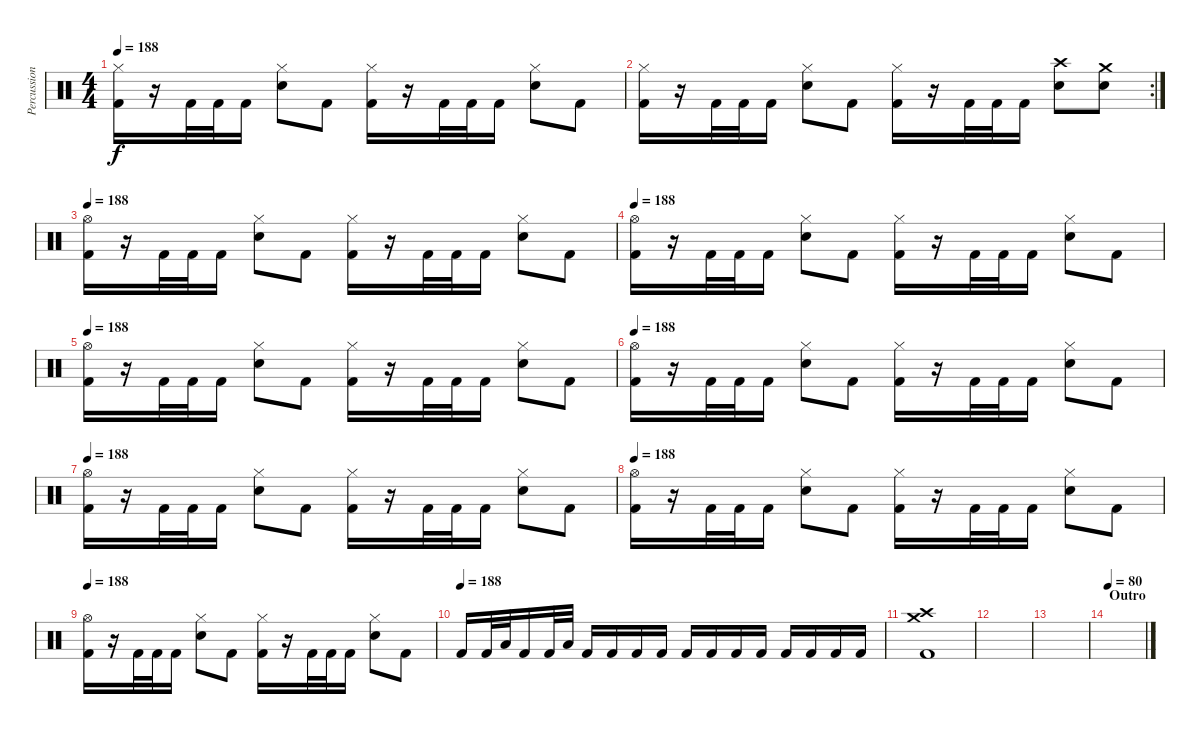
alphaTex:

\track ("Percussion" "Percussion") {instrument percussion}
\staff {score}
\articulation defaults
\ts (4 4)
\tempo 188
\clef neutral
\ks c
("Hi-Hat (closed)" "Kick (hit) 2").16{dy f} r.16 "Kick (hit) 2".32 "Kick (hit) 2".32 "Kick (hit) 2".16 ("Hi-Hat (closed)" "Electric Snare (hit)").8 "Kick (hit) 2".8 ("Hi-Hat (closed)" "Kick (hit) 2").16 r.16 "Kick (hit) 2".32 "Kick (hit) 2".32 "Kick (hit) 2".16 ("Hi-Hat (closed)" "Electric Snare (hit)").8 "Kick (hit) 2".8 |
\rc 2
("Hi-Hat (closed)" "Kick (hit) 2").16 r.16 "Kick (hit) 2".32 "Kick (hit) 2".32 "Kick (hit) 2".16 ("Hi-Hat (closed)" "Electric Snare (hit)").8 "Kick (hit) 2".8 ("Hi-Hat (closed)" "Kick (hit) 2").16 r.16 "Kick (hit) 2".32 "Kick (hit) 2".32 "Kick (hit) 2".16 ("Crash high (hit)" "Electric Snare (hit)").8 ("Crash medium (hit)" "Electric Snare (hit)").8 |
\tempo 188
("Hi-Hat (open)" "Kick (hit) 2").16 r.16 "Kick (hit) 2".32 "Kick (hit) 2".32 "Kick (hit) 2".16 ("Hi-Hat (closed)" "Electric Snare (hit)").8 "Kick (hit) 2".8 ("Hi-Hat (closed)" "Kick (hit) 2").16 r.16 "Kick (hit) 2".32 "Kick (hit) 2".32 "Kick (hit) 2".16 ("Hi-Hat (closed)" "Electric Snare (hit)").8 "Kick (hit) 2".8 |
\tempo 188
("Hi-Hat (open)" "Kick (hit) 2").16 r.16 "Kick (hit) 2".32 "Kick (hit) 2".32 "Kick (hit) 2".16 ("Hi-Hat (closed)" "Electric Snare (hit)").8 "Kick (hit) 2".8 ("Hi-Hat (closed)" "Kick (hit) 2").16 r.16 "Kick (hit) 2".32 "Kick (hit) 2".32 "Kick (hit) 2".16 ("Hi-Hat (closed)" "Electric Snare (hit)").8 "Kick (hit) 2".8 |
\tempo 188
("Hi-Hat (open)" "Kick (hit) 2").16 r.16 "Kick (hit) 2".32 "Kick (hit) 2".32 "Kick (hit) 2".16 ("Hi-Hat (closed)" "Electric Snare (hit)").8 "Kick (hit) 2".8 ("Hi-Hat (closed)" "Kick (hit) 2").16 r.16 "Kick (hit) 2".32 "Kick (hit) 2".32 "Kick (hit) 2".16 ("Hi-Hat (closed)" "Electric Snare (hit)").8 "Kick (hit) 2".8 |
\tempo 188
("Hi-Hat (open)" "Kick (hit) 2").16 r.16 "Kick (hit) 2".32 "Kick (hit) 2".32 "Kick (hit) 2".16 ("Hi-Hat (closed)" "Electric Snare (hit)").8 "Kick (hit) 2".8 ("Hi-Hat (closed)" "Kick (hit) 2").16 r.16 "Kick (hit) 2".32 "Kick (hit) 2".32 "Kick (hit) 2".16 ("Hi-Hat (closed)" "Electric Snare (hit)").8 "Kick (hit) 2".8 |
\tempo 188
("Hi-Hat (open)" "Kick (hit) 2").16 r.16 "Kick (hit) 2".32 "Kick (hit) 2".32 "Kick (hit) 2".16 ("Hi-Hat (closed)" "Electric Snare (hit)").8 "Kick (hit) 2".8 ("Hi-Hat (closed)" "Kick (hit) 2").16 r.16 "Kick (hit) 2".32 "Kick (hit) 2".32 "Kick (hit) 2".16 ("Hi-Hat (closed)" "Electric Snare (hit)").8 "Kick (hit) 2".8 |
\tempo 188
("Hi-Hat (open)" "Kick (hit) 2").16 r.16 "Kick (hit) 2".32 "Kick (hit) 2".32 "Kick (hit) 2".16 ("Hi-Hat (closed)" "Electric Snare (hit)").8 "Kick (hit) 2".8 ("Hi-Hat (closed)" "Kick (hit) 2").16 r.16 "Kick (hit) 2".32 "Kick (hit) 2".32 "Kick (hit) 2".16 ("Hi-Hat (closed)" "Electric Snare (hit)").8 "Kick (hit) 2".8 |
\tempo 188
("Hi-Hat (open)" "Kick (hit) 2").16 r.16 "Kick (hit) 2".32 "Kick (hit) 2".32 "Kick (hit) 2".16 ("Hi-Hat (closed)" "Electric Snare (hit)").8 "Kick (hit) 2".8 ("Hi-Hat (closed)" "Kick (hit) 2").16 r.16 "Kick (hit) 2".32 "Kick (hit) 2".32 "Kick (hit) 2".16 ("Hi-Hat (closed)" "Electric Snare (hit)").8 "Kick (hit) 2".8 |
\tempo (188)
"Kick (hit) 2".16 "Kick (hit) 2".32 "Low Floor Tom (hit)".32 "Kick (hit) 2".16 "Kick (hit) 2".32 "Low Floor Tom (hit)".32 "Kick (hit) 2".16 "Kick (hit) 2".16 "Kick (hit) 2".16 "Kick (hit) 2".16 "Kick (hit) 2".16 "Kick (hit) 2".16 "Kick (hit) 2".16 "Kick (hit) 2".16 "Kick (hit) 2".16 "Kick (hit) 2".16 "Kick (hit) 2".16 "Kick (hit) 2".16 |
("Crash high (hit)" "Crash medium (hit)" "Kick (hit) 2").1 |
|
|
\section ("" "Outro")
\tempo 80
